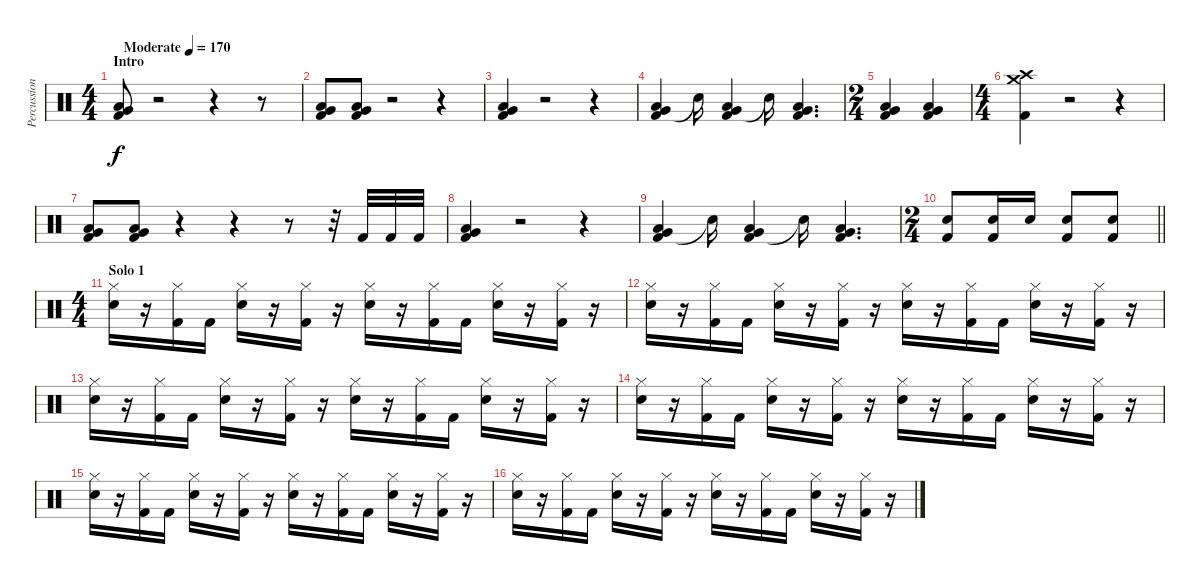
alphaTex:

\track ("Percussion" "Percussion") {instrument percussion}
\staff {score}
\articulation defaults
\ts (4 4)
\section ("" "Intro")
\tempo (170 "Moderate")
\clef neutral
\ks c
("Kick (hit) 2" "Very Low Tom (hit)" "Low Floor Tom (hit)").8{dy f} r.2 r.4 r.8 |
("Kick (hit) 2" "Very Low Tom (hit)" "Low Floor Tom (hit)").8 ("Kick (hit) 2" "Very Low Tom (hit)" "Low Floor Tom (hit)").8 r.2 r.4 |
("Kick (hit) 2" "Very Low Tom (hit)" "Low Floor Tom (hit)").4 r.2 r.4 |
("Kick (hit) 2" "Very Low Tom (hit)" "Low Floor Tom (hit)").4 "Snare (hit)"{t}.16 ("Kick (hit) 2" "Very Low Tom (hit)" "Low Floor Tom (hit)").4 "Snare (hit)"{t}.16 ("Kick (hit) 2" "Very Low Tom (hit)" "Low Floor Tom (hit)").4{d} |
\ts (2 4)
("Kick (hit) 2" "Very Low Tom (hit)" "Low Floor Tom (hit)").4 ("Kick (hit) 2" "Very Low Tom (hit)" "Low Floor Tom (hit)").4 |
\ts (4 4)
("Kick (hit) 2" "Crash medium (hit)" "Crash high (hit)").4 r.2 r.4 |
("Kick (hit) 2" "Very Low Tom (hit)" "Low Floor Tom (hit)").8 ("Kick (hit) 2" "Very Low Tom (hit)" "Low Floor Tom (hit)").8 r.4 r.4 r.8 r.32 "Kick (hit) 2".32 "Kick (hit) 2".32 "Kick (hit) 2".32 |
("Kick (hit) 2" "Very Low Tom (hit)" "Low Floor Tom (hit)").4 r.2 r.4 |
("Kick (hit) 2" "Very Low Tom (hit)" "Low Floor Tom (hit)").4 "Snare (hit)"{t}.16 ("Kick (hit) 2" "Very Low Tom (hit)" "Low Floor Tom (hit)").4 "Snare (hit)"{t}.16 ("Kick (hit) 2" "Very Low Tom (hit)" "Low Floor Tom (hit)").4{d} |
\ts (2 4)
\barLineRight lightlight
("Kick (hit) 2" "Snare (hit) 2").8 ("Kick (hit) 2" "Snare (hit) 2").16 "Snare (hit) 2".16 ("Kick (hit) 2" "Snare (hit) 2").8 ("Kick (hit) 2" "Snare (hit) 2").8 |
\ts (4 4)
\section ("" "Solo 1")
("Hi-Hat (closed)" "Snare (hit) 2").16 r.16 ("Hi-Hat (closed)" "Kick (hit) 2").16 "Kick (hit) 2".16 ("Hi-Hat (closed)" "Snare (hit) 2").16 r.16 ("Hi-Hat (closed)" "Kick (hit) 2").16 r.16 ("Hi-Hat (closed)" "Snare (hit) 2").16 r.16 ("Hi-Hat (closed)" "Kick (hit) 2").16 "Kick (hit) 2".16 ("Hi-Hat (closed)" "Snare (hit) 2").16 r.16 ("Hi-Hat (closed)" "Kick (hit) 2").16 r.16 |
("Hi-Hat (closed)" "Snare (hit) 2").16 r.16 ("Hi-Hat (closed)" "Kick (hit) 2").16 "Kick (hit) 2".16 ("Hi-Hat (closed)" "Snare (hit) 2").16 r.16 ("Hi-Hat (closed)" "Kick (hit) 2").16 r.16 ("Hi-Hat (closed)" "Snare (hit) 2").16 r.16 ("Hi-Hat (closed)" "Kick (hit) 2").16 "Kick (hit) 2".16 ("Hi-Hat (closed)" "Snare (hit) 2").16 r.16 ("Hi-Hat (closed)" "Kick (hit) 2").16 r.16 |
("Hi-Hat (closed)" "Snare (hit) 2").16 r.16 ("Hi-Hat (closed)" "Kick (hit) 2").16 "Kick (hit) 2".16 ("Hi-Hat (closed)" "Snare (hit) 2").16 r.16 ("Hi-Hat (closed)" "Kick (hit) 2").16 r.16 ("Hi-Hat (closed)" "Snare (hit) 2").16 r.16 ("Hi-Hat (closed)" "Kick (hit) 2").16 "Kick (hit) 2".16 ("Hi-Hat (closed)" "Snare (hit) 2").16 r.16 ("Hi-Hat (closed)" "Kick (hit) 2").16 r.16 |
("Hi-Hat (closed)" "Snare (hit) 2").16 r.16 ("Hi-Hat (closed)" "Kick (hit) 2").16 "Kick (hit) 2".16 ("Hi-Hat (closed)" "Snare (hit) 2").16 r.16 ("Hi-Hat (closed)" "Kick (hit) 2").16 r.16 ("Hi-Hat (closed)" "Snare (hit) 2").16 r.16 ("Hi-Hat (closed)" "Kick (hit) 2").16 "Kick (hit) 2".16 ("Hi-Hat (closed)" "Snare (hit) 2").16 r.16 ("Hi-Hat (closed)" "Kick (hit) 2").16 r.16 |
("Hi-Hat (closed)" "Snare (hit) 2").16 r.16 ("Hi-Hat (closed)" "Kick (hit) 2").16 "Kick (hit) 2".16 ("Hi-Hat (closed)" "Snare (hit) 2").16 r.16 ("Hi-Hat (closed)" "Kick (hit) 2").16 r.16 ("Hi-Hat (closed)" "Snare (hit) 2").16 r.16 ("Hi-Hat (closed)" "Kick (hit) 2").16 "Kick (hit) 2".16 ("Hi-Hat (closed)" "Snare (hit) 2").16 r.16 ("Hi-Hat (closed)" "Kick (hit) 2").16 r.16 |
("Hi-Hat (closed)" "Snare (hit) 2").16 r.16 ("Hi-Hat (closed)" "Kick (hit) 2").16 "Kick (hit) 2".16 ("Hi-Hat (closed)" "Snare (hit) 2").16 r.16 ("Hi-Hat (closed)" "Kick (hit) 2").16 r.16 ("Hi-Hat (closed)" "Snare (hit) 2").16 r.16 ("Hi-Hat (closed)" "Kick (hit) 2").16 "Kick (hit) 2".16 ("Hi-Hat (closed)" "Snare (hit) 2").16 r.16 ("Hi-Hat (closed)" "Kick (hit) 2").16 r.16
